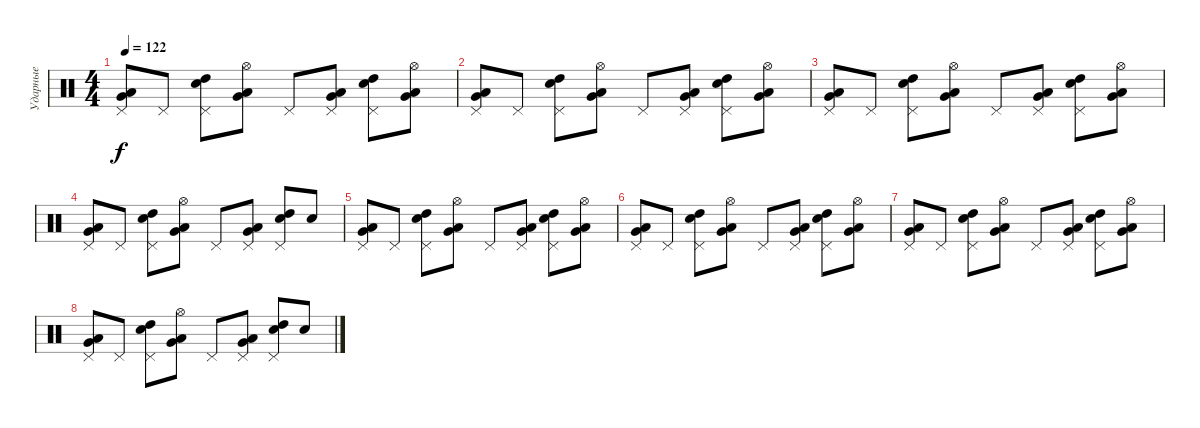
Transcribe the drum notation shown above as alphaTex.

\track ("Ударные" "Ударные") {instrument percussion}
\staff {score}
\articulation defaults
\ts (4 4)
\tempo 122
\clef neutral
\ks c
("Pedal Hi-Hat (hit)" "Low Floor Tom (hit)" "Very Low Tom (hit)").8{dy f} "Pedal Hi-Hat (hit)".8 ("Pedal Hi-Hat (hit)" "High Tom (hit)" "Snare (hit) 2").8 ("Hi-Hat (open)" "Low Floor Tom (hit)" "Very Low Tom (hit)").8 "Pedal Hi-Hat (hit)".8 ("Pedal Hi-Hat (hit)" "Low Floor Tom (hit)" "Very Low Tom (hit)").8 ("Pedal Hi-Hat (hit)" "High Tom (hit)" "Snare (hit) 2").8 ("Hi-Hat (open)" "Low Floor Tom (hit)" "Very Low Tom (hit)").8 |
("Pedal Hi-Hat (hit)" "Low Floor Tom (hit)" "Very Low Tom (hit)").8 "Pedal Hi-Hat (hit)".8 ("Pedal Hi-Hat (hit)" "High Tom (hit)" "Snare (hit) 2").8 ("Hi-Hat (open)" "Low Floor Tom (hit)" "Very Low Tom (hit)").8 "Pedal Hi-Hat (hit)".8 ("Pedal Hi-Hat (hit)" "Low Floor Tom (hit)" "Very Low Tom (hit)").8 ("Pedal Hi-Hat (hit)" "High Tom (hit)" "Snare (hit) 2").8 ("Hi-Hat (open)" "Low Floor Tom (hit)" "Very Low Tom (hit)").8 |
("Pedal Hi-Hat (hit)" "Low Floor Tom (hit)" "Very Low Tom (hit)").8 "Pedal Hi-Hat (hit)".8 ("Pedal Hi-Hat (hit)" "High Tom (hit)" "Snare (hit) 2").8 ("Hi-Hat (open)" "Low Floor Tom (hit)" "Very Low Tom (hit)").8 "Pedal Hi-Hat (hit)".8 ("Pedal Hi-Hat (hit)" "Low Floor Tom (hit)" "Very Low Tom (hit)").8 ("Pedal Hi-Hat (hit)" "High Tom (hit)" "Snare (hit) 2").8 ("Hi-Hat (open)" "Low Floor Tom (hit)" "Very Low Tom (hit)").8 |
("Pedal Hi-Hat (hit)" "Low Floor Tom (hit)" "Very Low Tom (hit)").8 "Pedal Hi-Hat (hit)".8 ("Pedal Hi-Hat (hit)" "High Tom (hit)" "Snare (hit) 2").8 ("Hi-Hat (open)" "Low Floor Tom (hit)" "Very Low Tom (hit)").8 "Pedal Hi-Hat (hit)".8 ("Pedal Hi-Hat (hit)" "Low Floor Tom (hit)" "Very Low Tom (hit)").8 ("Pedal Hi-Hat (hit)" "High Tom (hit)" "Snare (hit) 2").8 "Snare (hit) 2".8 |
("Pedal Hi-Hat (hit)" "Low Floor Tom (hit)" "Very Low Tom (hit)").8 "Pedal Hi-Hat (hit)".8 ("Pedal Hi-Hat (hit)" "High Tom (hit)" "Snare (hit) 2").8 ("Hi-Hat (open)" "Low Floor Tom (hit)" "Very Low Tom (hit)").8 "Pedal Hi-Hat (hit)".8 ("Pedal Hi-Hat (hit)" "Low Floor Tom (hit)" "Very Low Tom (hit)").8 ("Pedal Hi-Hat (hit)" "High Tom (hit)" "Snare (hit) 2").8 ("Hi-Hat (open)" "Low Floor Tom (hit)" "Very Low Tom (hit)").8 |
("Pedal Hi-Hat (hit)" "Low Floor Tom (hit)" "Very Low Tom (hit)").8 "Pedal Hi-Hat (hit)".8 ("Pedal Hi-Hat (hit)" "High Tom (hit)" "Snare (hit) 2").8 ("Hi-Hat (open)" "Low Floor Tom (hit)" "Very Low Tom (hit)").8 "Pedal Hi-Hat (hit)".8 ("Pedal Hi-Hat (hit)" "Low Floor Tom (hit)" "Very Low Tom (hit)").8 ("Pedal Hi-Hat (hit)" "High Tom (hit)" "Snare (hit) 2").8 ("Hi-Hat (open)" "Low Floor Tom (hit)" "Very Low Tom (hit)").8 |
("Pedal Hi-Hat (hit)" "Low Floor Tom (hit)" "Very Low Tom (hit)").8 "Pedal Hi-Hat (hit)".8 ("Pedal Hi-Hat (hit)" "High Tom (hit)" "Snare (hit) 2").8 ("Hi-Hat (open)" "Low Floor Tom (hit)" "Very Low Tom (hit)").8 "Pedal Hi-Hat (hit)".8 ("Pedal Hi-Hat (hit)" "Low Floor Tom (hit)" "Very Low Tom (hit)").8 ("Pedal Hi-Hat (hit)" "High Tom (hit)" "Snare (hit) 2").8 ("Hi-Hat (open)" "Low Floor Tom (hit)" "Very Low Tom (hit)").8 |
("Pedal Hi-Hat (hit)" "Low Floor Tom (hit)" "Very Low Tom (hit)").8 "Pedal Hi-Hat (hit)".8 ("Pedal Hi-Hat (hit)" "High Tom (hit)" "Snare (hit) 2").8 ("Hi-Hat (open)" "Low Floor Tom (hit)" "Very Low Tom (hit)").8 "Pedal Hi-Hat (hit)".8 ("Pedal Hi-Hat (hit)" "Low Floor Tom (hit)" "Very Low Tom (hit)").8 ("Pedal Hi-Hat (hit)" "High Tom (hit)" "Snare (hit) 2").8 "Snare (hit) 2".8
